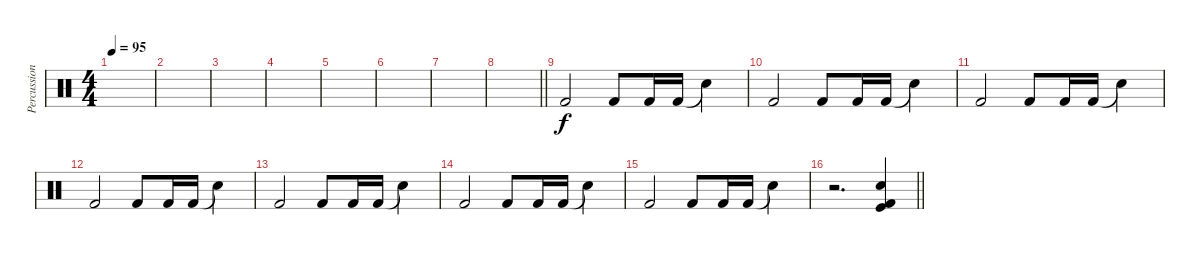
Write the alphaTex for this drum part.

\track ("Percussion" "Percussion") {instrument percussion}
\staff {score}
\articulation defaults
\ts (4 4)
\tempo 95
\clef neutral
\ks c
|
|
|
|
|
|
|
\barLineRight lightlight
|
"Kick (hit) 2".2 "Kick (hit) 2".8 "Kick (hit) 2".16 "Kick (hit) 2".16 "Snare (hit)"{t}.4 |
"Kick (hit) 2".2 "Kick (hit) 2".8 "Kick (hit) 2".16 "Kick (hit) 2".16 "Snare (hit)"{t}.4 |
"Kick (hit) 2".2 "Kick (hit) 2".8 "Kick (hit) 2".16 "Kick (hit) 2".16 "Snare (hit)"{t}.4 |
"Kick (hit) 2".2 "Kick (hit) 2".8 "Kick (hit) 2".16 "Kick (hit) 2".16 "Snare (hit)"{t}.4 |
"Kick (hit) 2".2 "Kick (hit) 2".8 "Kick (hit) 2".16 "Kick (hit) 2".16 "Snare (hit)"{t}.4 |
"Kick (hit) 2".2 "Kick (hit) 2".8 "Kick (hit) 2".16 "Kick (hit) 2".16 "Snare (hit)"{t}.4 |
"Kick (hit) 2".2 "Kick (hit) 2".8 "Kick (hit) 2".16 "Kick (hit) 2".16 "Snare (hit)"{t}.4 |
\barLineRight lightlight
r.2{d} ("Snare (hit) 2" "Kick (hit) 2" "Kick (hit)").4
